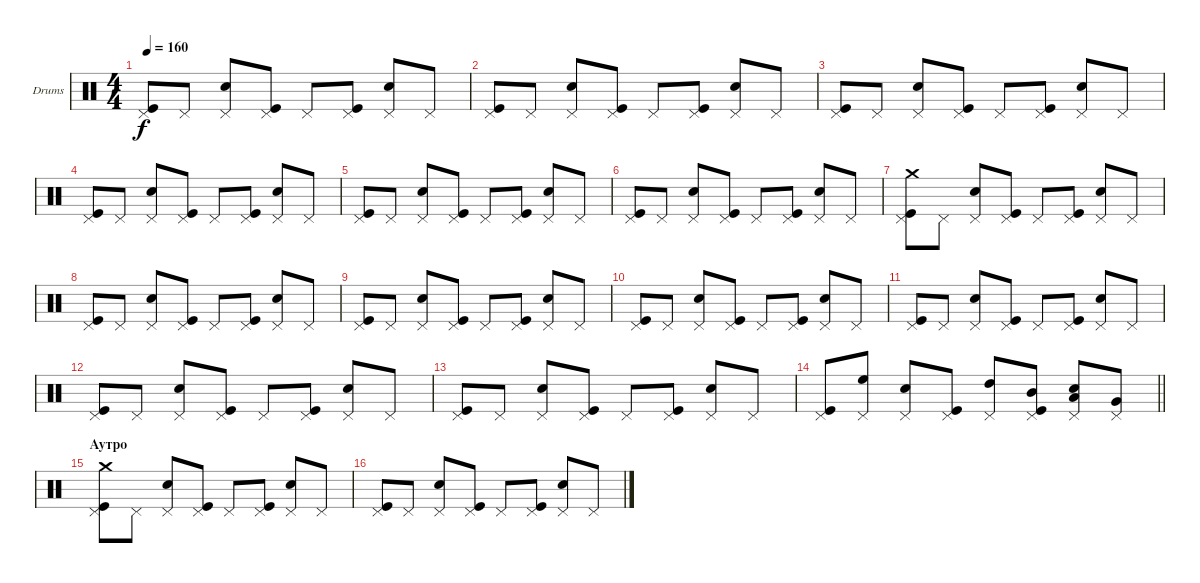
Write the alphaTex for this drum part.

\bracketExtendMode groupsimilarinstruments
\firstSystemTrackNameOrientation horizontal
\otherSystemsTrackNameOrientation horizontal
\track ("Ударные" "Drums") {instrument percussion}
\staff {score}
\articulation defaults
\ts (4 4)
\tempo 160
\clef neutral
\ks c
("Pedal Hi-Hat (hit)" "Kick (hit)").8{dy f} "Pedal Hi-Hat (hit)".8 ("Pedal Hi-Hat (hit)" "Snare (hit) 2").8 ("Pedal Hi-Hat (hit)" "Kick (hit)").8 "Pedal Hi-Hat (hit)".8 ("Pedal Hi-Hat (hit)" "Kick (hit)").8 ("Pedal Hi-Hat (hit)" "Snare (hit) 2").8 "Pedal Hi-Hat (hit)".8 |
("Pedal Hi-Hat (hit)" "Kick (hit)").8 "Pedal Hi-Hat (hit)".8 ("Pedal Hi-Hat (hit)" "Snare (hit) 2").8 ("Pedal Hi-Hat (hit)" "Kick (hit)").8 "Pedal Hi-Hat (hit)".8 ("Pedal Hi-Hat (hit)" "Kick (hit)").8 ("Pedal Hi-Hat (hit)" "Snare (hit) 2").8 "Pedal Hi-Hat (hit)".8 |
("Pedal Hi-Hat (hit)" "Kick (hit)").8 "Pedal Hi-Hat (hit)".8 ("Pedal Hi-Hat (hit)" "Snare (hit) 2").8 ("Pedal Hi-Hat (hit)" "Kick (hit)").8 "Pedal Hi-Hat (hit)".8 ("Pedal Hi-Hat (hit)" "Kick (hit)").8 ("Pedal Hi-Hat (hit)" "Snare (hit) 2").8 "Pedal Hi-Hat (hit)".8 |
("Pedal Hi-Hat (hit)" "Kick (hit)").8 "Pedal Hi-Hat (hit)".8 ("Pedal Hi-Hat (hit)" "Snare (hit) 2").8 ("Pedal Hi-Hat (hit)" "Kick (hit)").8 "Pedal Hi-Hat (hit)".8 ("Pedal Hi-Hat (hit)" "Kick (hit)").8 ("Pedal Hi-Hat (hit)" "Snare (hit) 2").8 "Pedal Hi-Hat (hit)".8 |
("Pedal Hi-Hat (hit)" "Kick (hit)").8 "Pedal Hi-Hat (hit)".8 ("Pedal Hi-Hat (hit)" "Snare (hit) 2").8 ("Pedal Hi-Hat (hit)" "Kick (hit)").8 "Pedal Hi-Hat (hit)".8 ("Pedal Hi-Hat (hit)" "Kick (hit)").8 ("Pedal Hi-Hat (hit)" "Snare (hit) 2").8 "Pedal Hi-Hat (hit)".8 |
("Pedal Hi-Hat (hit)" "Kick (hit)").8 "Pedal Hi-Hat (hit)".8 ("Pedal Hi-Hat (hit)" "Snare (hit) 2").8 ("Pedal Hi-Hat (hit)" "Kick (hit)").8 "Pedal Hi-Hat (hit)".8 ("Pedal Hi-Hat (hit)" "Kick (hit)").8 ("Pedal Hi-Hat (hit)" "Snare (hit) 2").8 "Pedal Hi-Hat (hit)".8 |
("Pedal Hi-Hat (hit)" "Crash medium (hit)" "Kick (hit)").8 "Pedal Hi-Hat (hit)".8 ("Pedal Hi-Hat (hit)" "Snare (hit) 2").8 ("Pedal Hi-Hat (hit)" "Kick (hit)").8 "Pedal Hi-Hat (hit)".8 ("Pedal Hi-Hat (hit)" "Kick (hit)").8 ("Pedal Hi-Hat (hit)" "Snare (hit) 2").8 "Pedal Hi-Hat (hit)".8 |
("Pedal Hi-Hat (hit)" "Kick (hit)").8 "Pedal Hi-Hat (hit)".8 ("Pedal Hi-Hat (hit)" "Snare (hit) 2").8 ("Pedal Hi-Hat (hit)" "Kick (hit)").8 "Pedal Hi-Hat (hit)".8 ("Pedal Hi-Hat (hit)" "Kick (hit)").8 ("Pedal Hi-Hat (hit)" "Snare (hit) 2").8 "Pedal Hi-Hat (hit)".8 |
("Pedal Hi-Hat (hit)" "Kick (hit)").8 "Pedal Hi-Hat (hit)".8 ("Pedal Hi-Hat (hit)" "Snare (hit) 2").8 ("Pedal Hi-Hat (hit)" "Kick (hit)").8 "Pedal Hi-Hat (hit)".8 ("Pedal Hi-Hat (hit)" "Kick (hit)").8 ("Pedal Hi-Hat (hit)" "Snare (hit) 2").8 "Pedal Hi-Hat (hit)".8 |
("Pedal Hi-Hat (hit)" "Kick (hit)").8 "Pedal Hi-Hat (hit)".8 ("Pedal Hi-Hat (hit)" "Snare (hit) 2").8 ("Pedal Hi-Hat (hit)" "Kick (hit)").8 "Pedal Hi-Hat (hit)".8 ("Pedal Hi-Hat (hit)" "Kick (hit)").8 ("Pedal Hi-Hat (hit)" "Snare (hit) 2").8 "Pedal Hi-Hat (hit)".8 |
("Pedal Hi-Hat (hit)" "Kick (hit)").8 "Pedal Hi-Hat (hit)".8 ("Pedal Hi-Hat (hit)" "Snare (hit) 2").8 ("Pedal Hi-Hat (hit)" "Kick (hit)").8 "Pedal Hi-Hat (hit)".8 ("Pedal Hi-Hat (hit)" "Kick (hit)").8 ("Pedal Hi-Hat (hit)" "Snare (hit) 2").8 "Pedal Hi-Hat (hit)".8 |
("Pedal Hi-Hat (hit)" "Kick (hit)").8 "Pedal Hi-Hat (hit)".8 ("Pedal Hi-Hat (hit)" "Snare (hit) 2").8 ("Pedal Hi-Hat (hit)" "Kick (hit)").8 "Pedal Hi-Hat (hit)".8 ("Pedal Hi-Hat (hit)" "Kick (hit)").8 ("Pedal Hi-Hat (hit)" "Snare (hit) 2").8 "Pedal Hi-Hat (hit)".8 |
("Pedal Hi-Hat (hit)" "Kick (hit)").8 "Pedal Hi-Hat (hit)".8 ("Pedal Hi-Hat (hit)" "Snare (hit) 2").8 ("Pedal Hi-Hat (hit)" "Kick (hit)").8 "Pedal Hi-Hat (hit)".8 ("Pedal Hi-Hat (hit)" "Kick (hit)").8 ("Pedal Hi-Hat (hit)" "Snare (hit) 2").8 "Pedal Hi-Hat (hit)".8 |
\barLineRight lightlight
("Pedal Hi-Hat (hit)" "Kick (hit)").8 ("Pedal Hi-Hat (hit)" "High Floor Tom (hit)").8 ("Pedal Hi-Hat (hit)" "Snare (hit) 2").8 ("Pedal Hi-Hat (hit)" "Kick (hit)").8 ("Pedal Hi-Hat (hit)" "High Tom (hit)").8 ("Pedal Hi-Hat (hit)" "Mid Tom (hit)" "Kick (hit)").8 ("Pedal Hi-Hat (hit)" "Low Tom (hit)" "Snare (hit) 2").8 ("Pedal Hi-Hat (hit)" "Very Low Tom (hit)").8 |
\section ("" "Аутро")
("Pedal Hi-Hat (hit)" "Crash medium (hit)" "Kick (hit)").8 "Pedal Hi-Hat (hit)".8 ("Pedal Hi-Hat (hit)" "Snare (hit) 2").8 ("Pedal Hi-Hat (hit)" "Kick (hit)").8 "Pedal Hi-Hat (hit)".8 ("Pedal Hi-Hat (hit)" "Kick (hit)").8 ("Pedal Hi-Hat (hit)" "Snare (hit) 2").8 "Pedal Hi-Hat (hit)".8 |
("Pedal Hi-Hat (hit)" "Kick (hit)").8 "Pedal Hi-Hat (hit)".8 ("Pedal Hi-Hat (hit)" "Snare (hit) 2").8 ("Pedal Hi-Hat (hit)" "Kick (hit)").8 "Pedal Hi-Hat (hit)".8 ("Pedal Hi-Hat (hit)" "Kick (hit)").8 ("Pedal Hi-Hat (hit)" "Snare (hit) 2").8 "Pedal Hi-Hat (hit)".8
